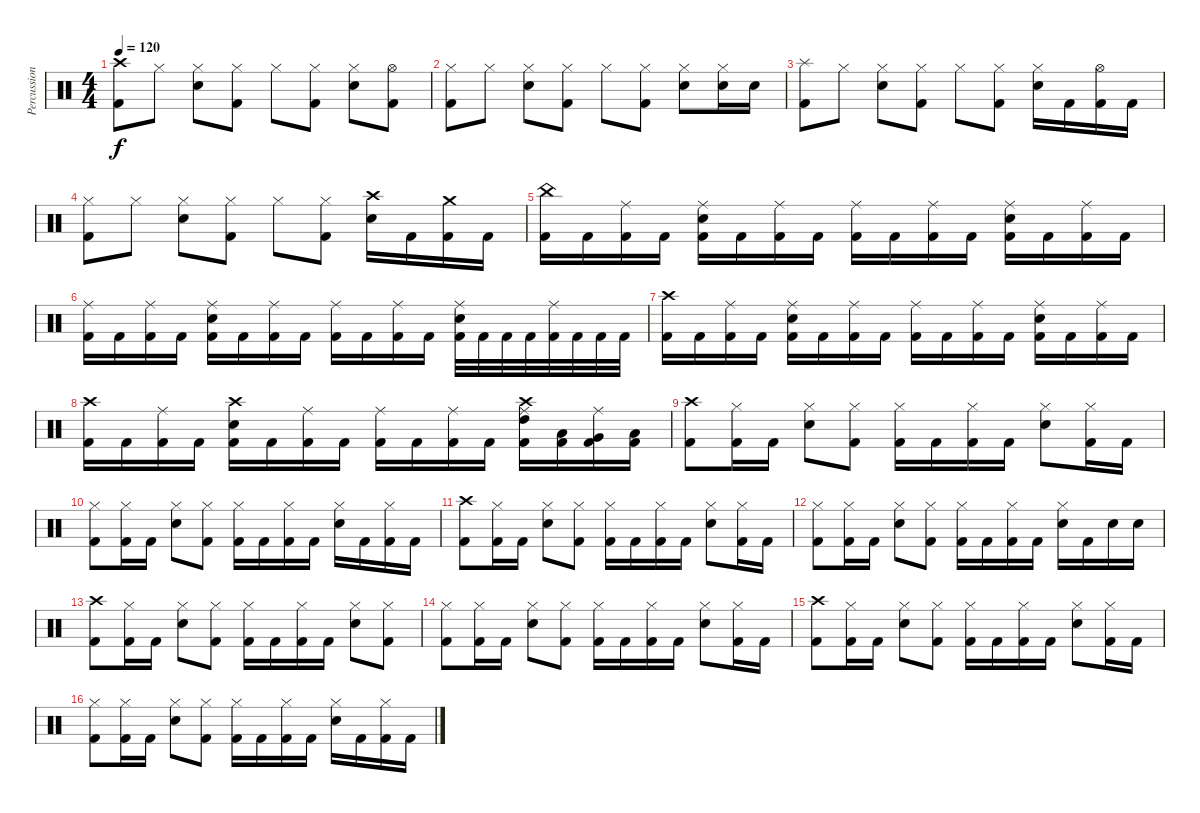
\track ("Percussion" "Percussion") {instrument percussion}
\staff {score}
\articulation defaults
\ts (4 4)
\tempo 120
\clef neutral
\ks c
("Crash high (hit)" "Kick (hit) 2").8{dy f} "Hi-Hat (closed)".8 ("Hi-Hat (closed)" "Snare (hit) 2").8 ("Hi-Hat (closed)" "Kick (hit) 2").8 "Hi-Hat (closed)".8 ("Hi-Hat (closed)" "Kick (hit) 2").8 ("Hi-Hat (closed)" "Snare (hit) 2").8 ("Hi-Hat (open)" "Kick (hit) 2").8 |
("Hi-Hat (closed)" "Kick (hit) 2").8 "Hi-Hat (closed)".8 ("Hi-Hat (closed)" "Snare (hit) 2").8 ("Hi-Hat (closed)" "Kick (hit) 2").8 "Hi-Hat (closed)".8 ("Hi-Hat (closed)" "Kick (hit) 2").8 ("Hi-Hat (closed)" "Snare (hit) 2").8 ("Hi-Hat (closed)" "Snare (hit) 2").16 "Snare (hit) 2".16 |
("Splash (hit)" "Kick (hit) 2").8 "Hi-Hat (closed)".8 ("Hi-Hat (closed)" "Snare (hit) 2").8 ("Hi-Hat (closed)" "Kick (hit) 2").8 "Hi-Hat (closed)".8 ("Hi-Hat (closed)" "Kick (hit) 2").8 ("Hi-Hat (closed)" "Snare (hit) 2").16 "Kick (hit) 2".16 ("Hi-Hat (open)" "Kick (hit) 2").16 "Kick (hit) 2".16 |
("Hi-Hat (closed)" "Kick (hit) 2").8 "Hi-Hat (closed)".8 ("Hi-Hat (closed)" "Snare (hit) 2").8 ("Hi-Hat (closed)" "Kick (hit) 2").8 "Hi-Hat (closed)".8 ("Hi-Hat (closed)" "Kick (hit) 2").8 ("Crash high (hit)" "Snare (hit) 2").16 "Kick (hit) 2".16 ("Crash medium (hit)" "Kick (hit) 2").16 "Kick (hit) 2".16 |
("China (hit)" "Kick (hit) 2").16 "Kick (hit) 2".16 ("Ride (middle)" "Kick (hit) 2").16 "Kick (hit) 2".16 ("Ride (middle)" "Snare (hit) 2" "Kick (hit) 2").16 "Kick (hit) 2".16 ("Ride (middle)" "Kick (hit) 2").16 "Kick (hit) 2".16 ("Ride (middle)" "Kick (hit) 2").16 "Kick (hit) 2".16 ("Ride (middle)" "Kick (hit) 2").16 "Kick (hit) 2".16 ("Ride (middle)" "Snare (hit) 2" "Kick (hit) 2").16 "Kick (hit) 2".16 ("Ride (middle)" "Kick (hit) 2").16 "Kick (hit) 2".16 |
("Ride (middle)" "Kick (hit) 2").16 "Kick (hit) 2".16 ("Ride (middle)" "Kick (hit) 2").16 "Kick (hit) 2".16 ("Ride (middle)" "Snare (hit) 2" "Kick (hit) 2").16 "Kick (hit) 2".16 ("Ride (middle)" "Kick (hit) 2").16 "Kick (hit) 2".16 ("Ride (middle)" "Kick (hit) 2").16 "Kick (hit) 2".16 ("Ride (middle)" "Kick (hit) 2").16 "Kick (hit) 2".16 ("Ride (middle)" "Snare (hit) 2" "Kick (hit) 2").32 "Kick (hit) 2".32 "Kick (hit) 2".32 "Kick (hit) 2".32 ("Ride (middle)" "Kick (hit) 2").32 "Kick (hit) 2".32 "Kick (hit) 2".32 "Kick (hit) 2".32 |
("Crash high (hit)" "Kick (hit) 2").16 "Kick (hit) 2".16 ("Ride (middle)" "Kick (hit) 2").16 "Kick (hit) 2".16 ("Ride (middle)" "Snare (hit) 2" "Kick (hit) 2").16 "Kick (hit) 2".16 ("Ride (middle)" "Kick (hit) 2").16 "Kick (hit) 2".16 ("Ride (middle)" "Kick (hit) 2").16 "Kick (hit) 2".16 ("Ride (middle)" "Kick (hit) 2").16 "Kick (hit) 2".16 ("Ride (middle)" "Snare (hit) 2" "Kick (hit) 2").16 "Kick (hit) 2".16 ("Ride (middle)" "Kick (hit) 2").16 "Kick (hit) 2".16 |
("Crash high (hit)" "Kick (hit) 2").16 "Kick (hit) 2".16 ("Ride (middle)" "Kick (hit) 2").16 "Kick (hit) 2".16 ("Crash high (hit)" "Snare (hit) 2" "Kick (hit) 2").16 "Kick (hit) 2".16 ("Ride (middle)" "Kick (hit) 2").16 "Kick (hit) 2".16 ("Ride (middle)" "Kick (hit) 2").16 "Kick (hit) 2".16 ("Ride (middle)" "Kick (hit) 2").16 "Kick (hit) 2".16 ("Crash high (hit)" "Ride (middle)" "High Tom (hit)" "Kick (hit) 2").16 ("Low Tom (hit)" "Kick (hit) 2").16 ("Ride (middle)" "Very Low Tom (hit)" "Kick (hit) 2").16 ("Low Floor Tom (hit)" "Kick (hit) 2").16 |
("Crash high (hit)" "Kick (hit) 2").8 ("Hi-Hat (closed)" "Kick (hit) 2").16 "Kick (hit) 2".16 ("Hi-Hat (closed)" "Snare (hit) 2").8 ("Hi-Hat (closed)" "Kick (hit) 2").8 ("Hi-Hat (closed)" "Kick (hit) 2").16 "Kick (hit) 2".16 ("Hi-Hat (closed)" "Kick (hit) 2").16 "Kick (hit) 2".16 ("Hi-Hat (closed)" "Snare (hit) 2").8 ("Hi-Hat (closed)" "Kick (hit) 2").16 "Kick (hit) 2".16 |
("Hi-Hat (closed)" "Kick (hit) 2").8 ("Hi-Hat (closed)" "Kick (hit) 2").16 "Kick (hit) 2".16 ("Hi-Hat (closed)" "Snare (hit) 2").8 ("Hi-Hat (closed)" "Kick (hit) 2").8 ("Hi-Hat (closed)" "Kick (hit) 2").16 "Kick (hit) 2".16 ("Hi-Hat (closed)" "Kick (hit) 2").16 "Kick (hit) 2".16 ("Hi-Hat (closed)" "Snare (hit) 2").16 "Kick (hit) 2".16 ("Hi-Hat (closed)" "Kick (hit) 2").16 "Kick (hit) 2".16 |
("Crash high (hit)" "Kick (hit) 2").8 ("Hi-Hat (closed)" "Kick (hit) 2").16 "Kick (hit) 2".16 ("Hi-Hat (closed)" "Snare (hit) 2").8 ("Hi-Hat (closed)" "Kick (hit) 2").8 ("Hi-Hat (closed)" "Kick (hit) 2").16 "Kick (hit) 2".16 ("Hi-Hat (closed)" "Kick (hit) 2").16 "Kick (hit) 2".16 ("Hi-Hat (closed)" "Snare (hit) 2").8 ("Hi-Hat (closed)" "Kick (hit) 2").16 "Kick (hit) 2".16 |
("Hi-Hat (closed)" "Kick (hit) 2").8 ("Hi-Hat (closed)" "Kick (hit) 2").16 "Kick (hit) 2".16 ("Hi-Hat (closed)" "Snare (hit) 2").8 ("Hi-Hat (closed)" "Kick (hit) 2").8 ("Hi-Hat (closed)" "Kick (hit) 2").16 "Kick (hit) 2".16 ("Hi-Hat (closed)" "Kick (hit) 2").16 "Kick (hit) 2".16 ("Hi-Hat (closed)" "Snare (hit) 2").16 "Kick (hit) 2".16 "Snare (hit) 2".16 "Snare (hit) 2".16 |
("Crash high (hit)" "Kick (hit) 2").8 ("Hi-Hat (closed)" "Kick (hit) 2").16 "Kick (hit) 2".16 ("Hi-Hat (closed)" "Snare (hit) 2").8 ("Hi-Hat (closed)" "Kick (hit) 2").8 ("Hi-Hat (closed)" "Kick (hit) 2").16 "Kick (hit) 2".16 ("Hi-Hat (closed)" "Kick (hit) 2").16 "Kick (hit) 2".16 ("Hi-Hat (closed)" "Snare (hit) 2").8 ("Hi-Hat (closed)" "Kick (hit) 2").8 |
("Hi-Hat (closed)" "Kick (hit) 2").8 ("Hi-Hat (closed)" "Kick (hit) 2").16 "Kick (hit) 2".16 ("Hi-Hat (closed)" "Snare (hit) 2").8 ("Hi-Hat (closed)" "Kick (hit) 2").8 ("Hi-Hat (closed)" "Kick (hit) 2").16 "Kick (hit) 2".16 ("Hi-Hat (closed)" "Kick (hit) 2").16 "Kick (hit) 2".16 ("Hi-Hat (closed)" "Snare (hit) 2").8 ("Hi-Hat (closed)" "Kick (hit) 2").16 "Kick (hit) 2".16 |
("Crash high (hit)" "Kick (hit) 2").8 ("Hi-Hat (closed)" "Kick (hit) 2").16 "Kick (hit) 2".16 ("Hi-Hat (closed)" "Snare (hit) 2").8 ("Hi-Hat (closed)" "Kick (hit) 2").8 ("Hi-Hat (closed)" "Kick (hit) 2").16 "Kick (hit) 2".16 ("Hi-Hat (closed)" "Kick (hit) 2").16 "Kick (hit) 2".16 ("Hi-Hat (closed)" "Snare (hit) 2").8 ("Hi-Hat (closed)" "Kick (hit) 2").16 "Kick (hit) 2".16 |
("Hi-Hat (closed)" "Kick (hit) 2").8 ("Hi-Hat (closed)" "Kick (hit) 2").16 "Kick (hit) 2".16 ("Hi-Hat (closed)" "Snare (hit) 2").8 ("Hi-Hat (closed)" "Kick (hit) 2").8 ("Hi-Hat (closed)" "Kick (hit) 2").16 "Kick (hit) 2".16 ("Hi-Hat (closed)" "Kick (hit) 2").16 "Kick (hit) 2".16 ("Hi-Hat (closed)" "Snare (hit) 2").16 "Kick (hit) 2".16 ("Hi-Hat (closed)" "Kick (hit) 2").16 "Kick (hit) 2".16
